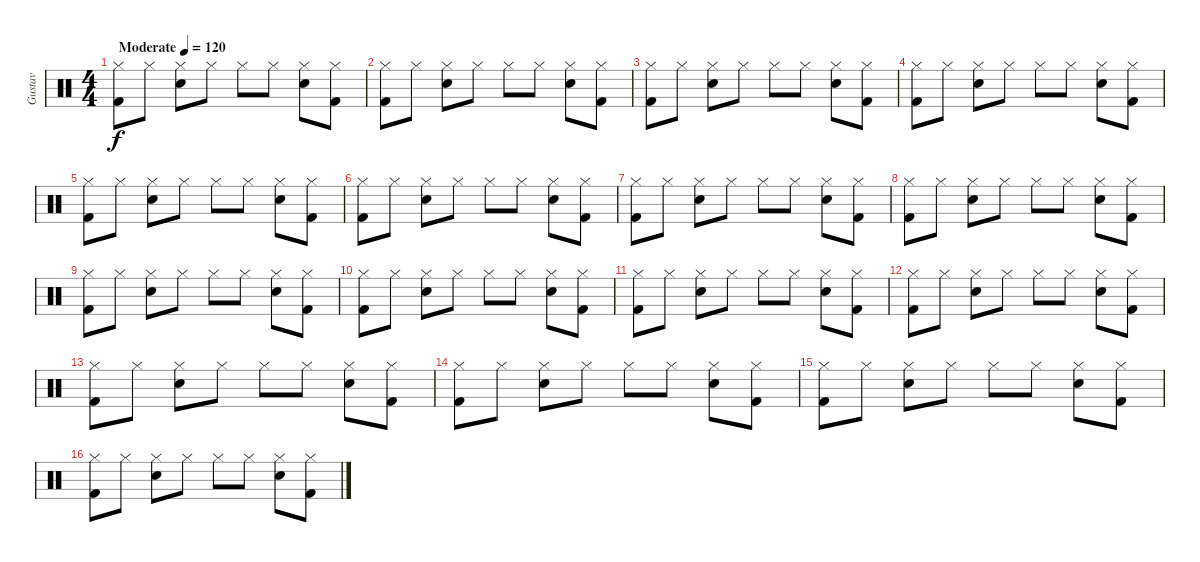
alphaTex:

\track ("Gustav" "Gustav") {instrument percussion}
\staff {score}
\articulation defaults
\ts (4 4)
\tempo (120 "Moderate")
\clef neutral
\ks c
("Kick (hit) 2" "Hi-Hat (closed)").8{dy f} "Hi-Hat (closed)".8 ("Hi-Hat (closed)" "Snare (hit) 2").8 "Hi-Hat (closed)".8 "Hi-Hat (closed)".8 "Hi-Hat (closed)".8 ("Snare (hit) 2" "Hi-Hat (closed)").8 ("Hi-Hat (closed)" "Kick (hit) 2").8 |
("Kick (hit) 2" "Hi-Hat (closed)").8 "Hi-Hat (closed)".8 ("Hi-Hat (closed)" "Snare (hit) 2").8 "Hi-Hat (closed)".8 "Hi-Hat (closed)".8 "Hi-Hat (closed)".8 ("Snare (hit) 2" "Hi-Hat (closed)").8 ("Hi-Hat (closed)" "Kick (hit) 2").8 |
("Kick (hit) 2" "Hi-Hat (closed)").8 "Hi-Hat (closed)".8 ("Hi-Hat (closed)" "Snare (hit) 2").8 "Hi-Hat (closed)".8 "Hi-Hat (closed)".8 "Hi-Hat (closed)".8 ("Snare (hit) 2" "Hi-Hat (closed)").8 ("Hi-Hat (closed)" "Kick (hit) 2").8 |
("Kick (hit) 2" "Hi-Hat (closed)").8 "Hi-Hat (closed)".8 ("Hi-Hat (closed)" "Snare (hit) 2").8 "Hi-Hat (closed)".8 "Hi-Hat (closed)".8 "Hi-Hat (closed)".8 ("Snare (hit) 2" "Hi-Hat (closed)").8 ("Hi-Hat (closed)" "Kick (hit) 2").8 |
("Kick (hit) 2" "Hi-Hat (closed)").8 "Hi-Hat (closed)".8 ("Hi-Hat (closed)" "Snare (hit) 2").8 "Hi-Hat (closed)".8 "Hi-Hat (closed)".8 "Hi-Hat (closed)".8 ("Snare (hit) 2" "Hi-Hat (closed)").8 ("Hi-Hat (closed)" "Kick (hit) 2").8 |
("Kick (hit) 2" "Hi-Hat (closed)").8 "Hi-Hat (closed)".8 ("Hi-Hat (closed)" "Snare (hit) 2").8 "Hi-Hat (closed)".8 "Hi-Hat (closed)".8 "Hi-Hat (closed)".8 ("Snare (hit) 2" "Hi-Hat (closed)").8 ("Hi-Hat (closed)" "Kick (hit) 2").8 |
("Kick (hit) 2" "Hi-Hat (closed)").8 "Hi-Hat (closed)".8 ("Hi-Hat (closed)" "Snare (hit) 2").8 "Hi-Hat (closed)".8 "Hi-Hat (closed)".8 "Hi-Hat (closed)".8 ("Snare (hit) 2" "Hi-Hat (closed)").8 ("Hi-Hat (closed)" "Kick (hit) 2").8 |
("Kick (hit) 2" "Hi-Hat (closed)").8 "Hi-Hat (closed)".8 ("Hi-Hat (closed)" "Snare (hit) 2").8 "Hi-Hat (closed)".8 "Hi-Hat (closed)".8 "Hi-Hat (closed)".8 ("Snare (hit) 2" "Hi-Hat (closed)").8 ("Hi-Hat (closed)" "Kick (hit) 2").8 |
("Kick (hit) 2" "Hi-Hat (closed)").8 "Hi-Hat (closed)".8 ("Hi-Hat (closed)" "Snare (hit) 2").8 "Hi-Hat (closed)".8 "Hi-Hat (closed)".8 "Hi-Hat (closed)".8 ("Snare (hit) 2" "Hi-Hat (closed)").8 ("Hi-Hat (closed)" "Kick (hit) 2").8 |
("Kick (hit) 2" "Hi-Hat (closed)").8 "Hi-Hat (closed)".8 ("Hi-Hat (closed)" "Snare (hit) 2").8 "Hi-Hat (closed)".8 "Hi-Hat (closed)".8 "Hi-Hat (closed)".8 ("Snare (hit) 2" "Hi-Hat (closed)").8 ("Hi-Hat (closed)" "Kick (hit) 2").8 |
("Kick (hit) 2" "Hi-Hat (closed)").8 "Hi-Hat (closed)".8 ("Hi-Hat (closed)" "Snare (hit) 2").8 "Hi-Hat (closed)".8 "Hi-Hat (closed)".8 "Hi-Hat (closed)".8 ("Snare (hit) 2" "Hi-Hat (closed)").8 ("Hi-Hat (closed)" "Kick (hit) 2").8 |
("Kick (hit) 2" "Hi-Hat (closed)").8 "Hi-Hat (closed)".8 ("Hi-Hat (closed)" "Snare (hit) 2").8 "Hi-Hat (closed)".8 "Hi-Hat (closed)".8 "Hi-Hat (closed)".8 ("Snare (hit) 2" "Hi-Hat (closed)").8 ("Hi-Hat (closed)" "Kick (hit) 2").8 |
("Kick (hit) 2" "Hi-Hat (closed)").8 "Hi-Hat (closed)".8 ("Hi-Hat (closed)" "Snare (hit) 2").8 "Hi-Hat (closed)".8 "Hi-Hat (closed)".8 "Hi-Hat (closed)".8 ("Snare (hit) 2" "Hi-Hat (closed)").8 ("Hi-Hat (closed)" "Kick (hit) 2").8 |
("Kick (hit) 2" "Hi-Hat (closed)").8 "Hi-Hat (closed)".8 ("Hi-Hat (closed)" "Snare (hit) 2").8 "Hi-Hat (closed)".8 "Hi-Hat (closed)".8 "Hi-Hat (closed)".8 ("Snare (hit) 2" "Hi-Hat (closed)").8 ("Hi-Hat (closed)" "Kick (hit) 2").8 |
("Kick (hit) 2" "Hi-Hat (closed)").8 "Hi-Hat (closed)".8 ("Hi-Hat (closed)" "Snare (hit) 2").8 "Hi-Hat (closed)".8 "Hi-Hat (closed)".8 "Hi-Hat (closed)".8 ("Snare (hit) 2" "Hi-Hat (closed)").8 ("Hi-Hat (closed)" "Kick (hit) 2").8 |
("Kick (hit) 2" "Hi-Hat (closed)").8 "Hi-Hat (closed)".8 ("Hi-Hat (closed)" "Snare (hit) 2").8 "Hi-Hat (closed)".8 "Hi-Hat (closed)".8 "Hi-Hat (closed)".8 ("Snare (hit) 2" "Hi-Hat (closed)").8 ("Hi-Hat (closed)" "Kick (hit) 2").8
